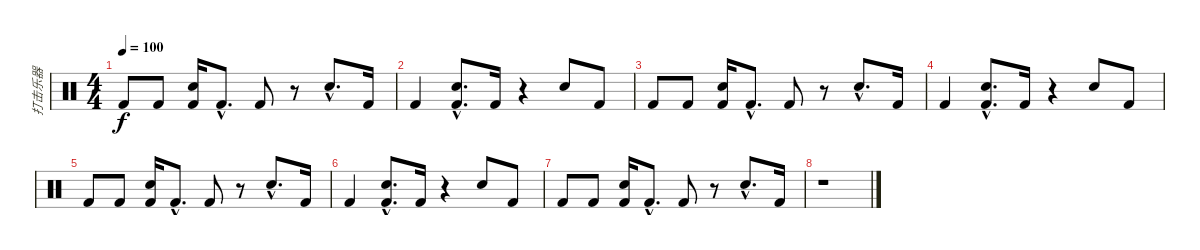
\track ("打击乐器" "打击乐器") {instrument percussion}
\staff {score}
\articulation defaults
\ts (4 4)
\tempo 100
\clef neutral
\ks c "Kick (hit) 2".8{dy f} "Kick (hit) 2".8
("Hand Clap (hit)" "Kick (hit) 2").16 "Kick (hit) 2"{hac}.8{d} "Kick (hit) 2".8 r.8 "Hand Clap (hit)"{hac}.8{d} "Kick (hit) 2".16 |
"Kick (hit) 2".4 ("Hand Clap (hit)"{hac} "Kick (hit) 2"{hac}).8{d} "Kick (hit) 2".16 r.4 "Hand Clap (hit)".8 "Kick (hit) 2".8 |
"Kick (hit) 2".8 "Kick (hit) 2".8 ("Hand Clap (hit)" "Kick (hit) 2").16 "Kick (hit) 2"{hac}.8{d} "Kick (hit) 2".8 r.8 "Hand Clap (hit)"{hac}.8{d} "Kick (hit) 2".16 |
"Kick (hit) 2".4 ("Hand Clap (hit)"{hac} "Kick (hit) 2"{hac}).8{d} "Kick (hit) 2".16 r.4 "Hand Clap (hit)".8 "Kick (hit) 2".8 |
"Kick (hit) 2".8 "Kick (hit) 2".8 ("Hand Clap (hit)" "Kick (hit) 2").16 "Kick (hit) 2"{hac}.8{d} "Kick (hit) 2".8 r.8 "Hand Clap (hit)"{hac}.8{d} "Kick (hit) 2".16 |
"Kick (hit) 2".4 ("Hand Clap (hit)"{hac} "Kick (hit) 2"{hac}).8{d} "Kick (hit) 2".16 r.4 "Hand Clap (hit)".8 "Kick (hit) 2".8 |
"Kick (hit) 2".8 "Kick (hit) 2".8 ("Hand Clap (hit)" "Kick (hit) 2").16 "Kick (hit) 2"{hac}.8{d} "Kick (hit) 2".8 r.8 "Hand Clap (hit)"{hac}.8{d} "Kick (hit) 2".16 |
r.1
